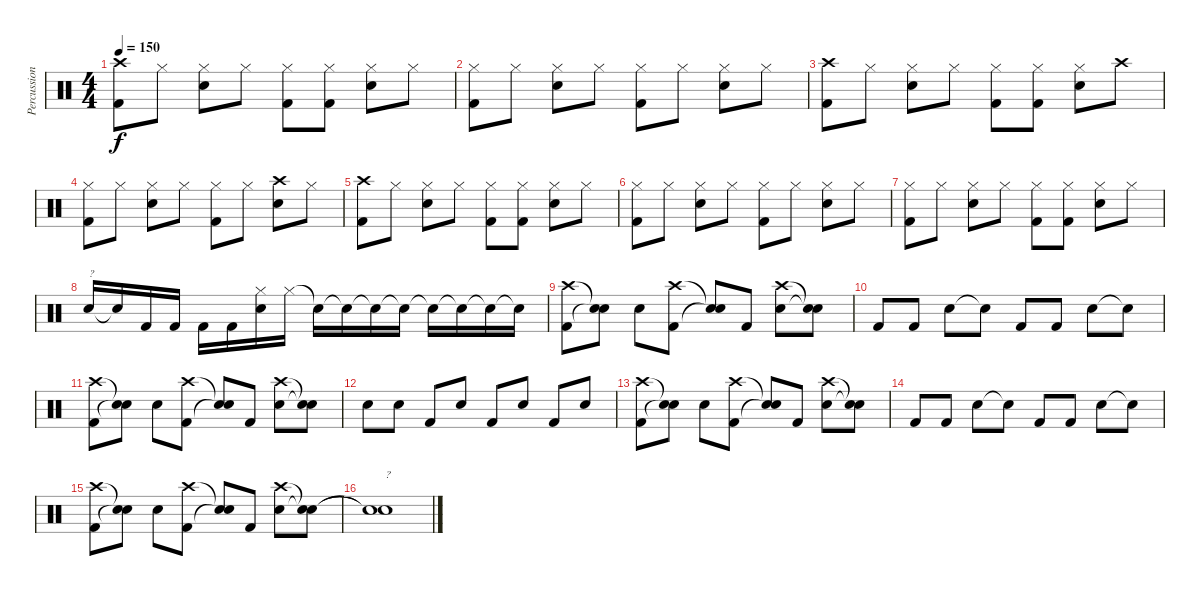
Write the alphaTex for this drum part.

\track ("Percussion" "Percussion") {instrument percussion}
\staff {score}
\articulation defaults
\ts (4 4)
\tempo 150
\clef neutral
\ks c
("Kick (hit) 2" "Crash high (hit)").8{dy f} "Hi-Hat (closed)".8 ("Snare (hit) 2" "Hi-Hat (closed)").8 "Hi-Hat (closed)".8 ("Kick (hit) 2" "Hi-Hat (closed)").8 ("Kick (hit) 2" "Hi-Hat (closed)").8 ("Snare (hit) 2" "Hi-Hat (closed)").8 "Hi-Hat (closed)".8 |
("Kick (hit) 2" "Hi-Hat (closed)").8 "Hi-Hat (closed)".8 ("Snare (hit) 2" "Hi-Hat (closed)").8 "Hi-Hat (closed)".8 ("Kick (hit) 2" "Hi-Hat (closed)").8 "Hi-Hat (closed)".8 ("Snare (hit) 2" "Hi-Hat (closed)").8 "Hi-Hat (closed)".8 |
("Kick (hit) 2" "Crash high (hit)").8 "Hi-Hat (closed)".8 ("Snare (hit) 2" "Hi-Hat (closed)").8 "Hi-Hat (closed)".8 ("Kick (hit) 2" "Hi-Hat (closed)").8 ("Kick (hit) 2" "Hi-Hat (closed)").8 ("Snare (hit) 2" "Hi-Hat (closed)").8 "Crash high (hit)".8 |
("Kick (hit) 2" "Hi-Hat (closed)").8 "Hi-Hat (closed)".8 ("Snare (hit) 2" "Hi-Hat (closed)").8 "Hi-Hat (closed)".8 ("Kick (hit) 2" "Hi-Hat (closed)").8 "Hi-Hat (closed)".8 ("Snare (hit) 2" "Crash high (hit)").8 "Hi-Hat (closed)".8 |
("Kick (hit) 2" "Crash high (hit)").8 "Hi-Hat (closed)".8 ("Snare (hit) 2" "Hi-Hat (closed)").8 "Hi-Hat (closed)".8 ("Kick (hit) 2" "Hi-Hat (closed)").8 ("Kick (hit) 2" "Hi-Hat (closed)").8 ("Snare (hit) 2" "Hi-Hat (closed)").8 "Hi-Hat (closed)".8 |
("Kick (hit) 2" "Hi-Hat (closed)").8 "Hi-Hat (closed)".8 ("Snare (hit) 2" "Hi-Hat (closed)").8 "Hi-Hat (closed)".8 ("Kick (hit) 2" "Hi-Hat (closed)").8 "Hi-Hat (closed)".8 ("Snare (hit) 2" "Hi-Hat (closed)").8 "Hi-Hat (closed)".8 |
("Kick (hit) 2" "Hi-Hat (closed)").8 "Hi-Hat (closed)".8 ("Snare (hit) 2" "Hi-Hat (closed)").8 "Hi-Hat (closed)".8 ("Kick (hit) 2" "Hi-Hat (closed)").8 ("Kick (hit) 2" "Hi-Hat (closed)").8 ("Snare (hit) 2" "Hi-Hat (closed)").8 "Hi-Hat (closed)".8 |
"Snare (hit) 2".16{txt "?"} "Snare (hit)"{t}.16 "Kick (hit) 2".16 "Kick (hit) 2".16 "Kick (hit) 2".16 "Kick (hit) 2".16 ("Snare (hit) 2" "Hi-Hat (closed)").16 "Hi-Hat (closed)".16 "Snare (hit)"{t}.16 "Snare (hit)"{t}.16 "Snare (hit)"{t}.16 "Snare (hit)"{t}.16 "Snare (hit)"{t}.16 "Snare (hit)"{t}.16 "Snare (hit)"{t}.16 "Snare (hit)"{t}.16 |
("Kick (hit) 2" "Crash high (hit)").8 ("Snare (hit)"{t} "Snare (hit)"{t}).8 "Snare (hit) 2".8 ("Kick (hit) 2" "Crash high (hit)").8 ("Snare (hit)"{t} "Snare (hit)"{t}).8 "Kick (hit) 2".8 ("Snare (hit) 2" "Crash high (hit)").8 ("Snare (hit)"{t} "Snare (hit)"{t}).8 |
"Kick (hit) 2".8 "Kick (hit) 2".8 "Snare (hit) 2".8 "Snare (hit)"{t}.8 "Kick (hit) 2".8 "Kick (hit) 2".8 "Snare (hit) 2".8 "Snare (hit)"{t}.8 |
("Kick (hit) 2" "Crash high (hit)").8 ("Snare (hit)"{t} "Snare (hit)"{t}).8 "Snare (hit) 2".8 ("Kick (hit) 2" "Crash high (hit)").8 ("Snare (hit)"{t} "Snare (hit)"{t}).8 "Kick (hit) 2".8 ("Snare (hit) 2" "Crash high (hit)").8 ("Snare (hit)"{t} "Snare (hit)"{t}).8 |
"Snare (hit) 2".8 "Snare (hit) 2".8 "Kick (hit) 2".8 "Snare (hit) 2".8 "Kick (hit) 2".8 "Snare (hit) 2".8 "Kick (hit) 2".8 "Snare (hit) 2".8 |
("Kick (hit) 2" "Crash high (hit)").8 ("Snare (hit)"{t} "Snare (hit)"{t}).8 "Snare (hit) 2".8 ("Kick (hit) 2" "Crash high (hit)").8 ("Snare (hit)"{t} "Snare (hit)"{t}).8 "Kick (hit) 2".8 ("Snare (hit) 2" "Crash high (hit)").8 ("Snare (hit)"{t} "Snare (hit)"{t}).8 |
"Kick (hit) 2".8 "Kick (hit) 2".8 "Snare (hit) 2".8 "Snare (hit)"{t}.8 "Kick (hit) 2".8 "Kick (hit) 2".8 "Snare (hit) 2".8 "Snare (hit)"{t}.8 |
("Kick (hit) 2" "Crash high (hit)").8 ("Snare (hit)"{t} "Snare (hit)"{t}).8 "Snare (hit) 2".8 ("Kick (hit) 2" "Crash high (hit)").8 ("Snare (hit)"{t} "Snare (hit)"{t}).8 "Kick (hit) 2".8 ("Snare (hit) 2" "Crash high (hit)").8 ("Snare (hit)"{t} "Snare (hit)"{t}).8 |
("Snare (hit)"{t} "Snare (hit)"{t}).1{txt "?"}
